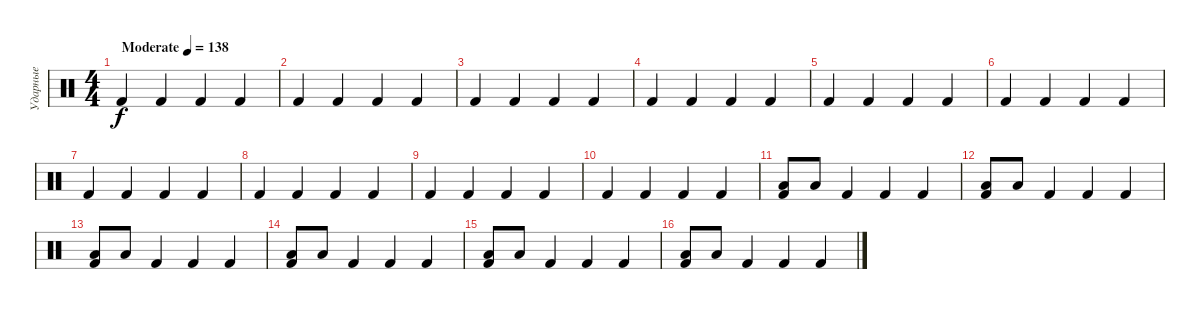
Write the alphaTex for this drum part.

\track ("Ударные" "Ударные") {instrument percussion}
\staff {score}
\articulation defaults
\ts (4 4)
\tempo (138 "Moderate")
\clef neutral
\ks c "Kick (hit) 2".4{dy f} "Kick (hit) 2".4 "Kick (hit) 2".4 "Kick (hit) 2".4
|
"Kick (hit) 2".4 "Kick (hit) 2".4 "Kick (hit) 2".4 "Kick (hit) 2".4 |
"Kick (hit) 2".4 "Kick (hit) 2".4 "Kick (hit) 2".4 "Kick (hit) 2".4 |
"Kick (hit) 2".4 "Kick (hit) 2".4 "Kick (hit) 2".4 "Kick (hit) 2".4 |
"Kick (hit) 2".4 "Kick (hit) 2".4 "Kick (hit) 2".4 "Kick (hit) 2".4 |
"Kick (hit) 2".4 "Kick (hit) 2".4 "Kick (hit) 2".4 "Kick (hit) 2".4 |
"Kick (hit) 2".4 "Kick (hit) 2".4 "Kick (hit) 2".4 "Kick (hit) 2".4 |
"Kick (hit) 2".4 "Kick (hit) 2".4 "Kick (hit) 2".4 "Kick (hit) 2".4 |
"Kick (hit) 2".4 "Kick (hit) 2".4 "Kick (hit) 2".4 "Kick (hit) 2".4 |
"Kick (hit) 2".4 "Kick (hit) 2".4 "Kick (hit) 2".4 "Kick (hit) 2".4 |
("Low Tom (hit)" "Kick (hit) 2").8 "Low Tom (hit)".8 "Kick (hit) 2".4 "Kick (hit) 2".4 "Kick (hit) 2".4 |
("Low Tom (hit)" "Kick (hit) 2").8 "Low Tom (hit)".8 "Kick (hit) 2".4 "Kick (hit) 2".4 "Kick (hit) 2".4 |
("Low Tom (hit)" "Kick (hit) 2").8 "Low Tom (hit)".8 "Kick (hit) 2".4 "Kick (hit) 2".4 "Kick (hit) 2".4 |
("Low Tom (hit)" "Kick (hit) 2").8 "Low Tom (hit)".8 "Kick (hit) 2".4 "Kick (hit) 2".4 "Kick (hit) 2".4 |
("Low Tom (hit)" "Kick (hit) 2").8 "Low Tom (hit)".8 "Kick (hit) 2".4 "Kick (hit) 2".4 "Kick (hit) 2".4 |
("Low Tom (hit)" "Kick (hit) 2").8 "Low Tom (hit)".8 "Kick (hit) 2".4 "Kick (hit) 2".4 "Kick (hit) 2".4
